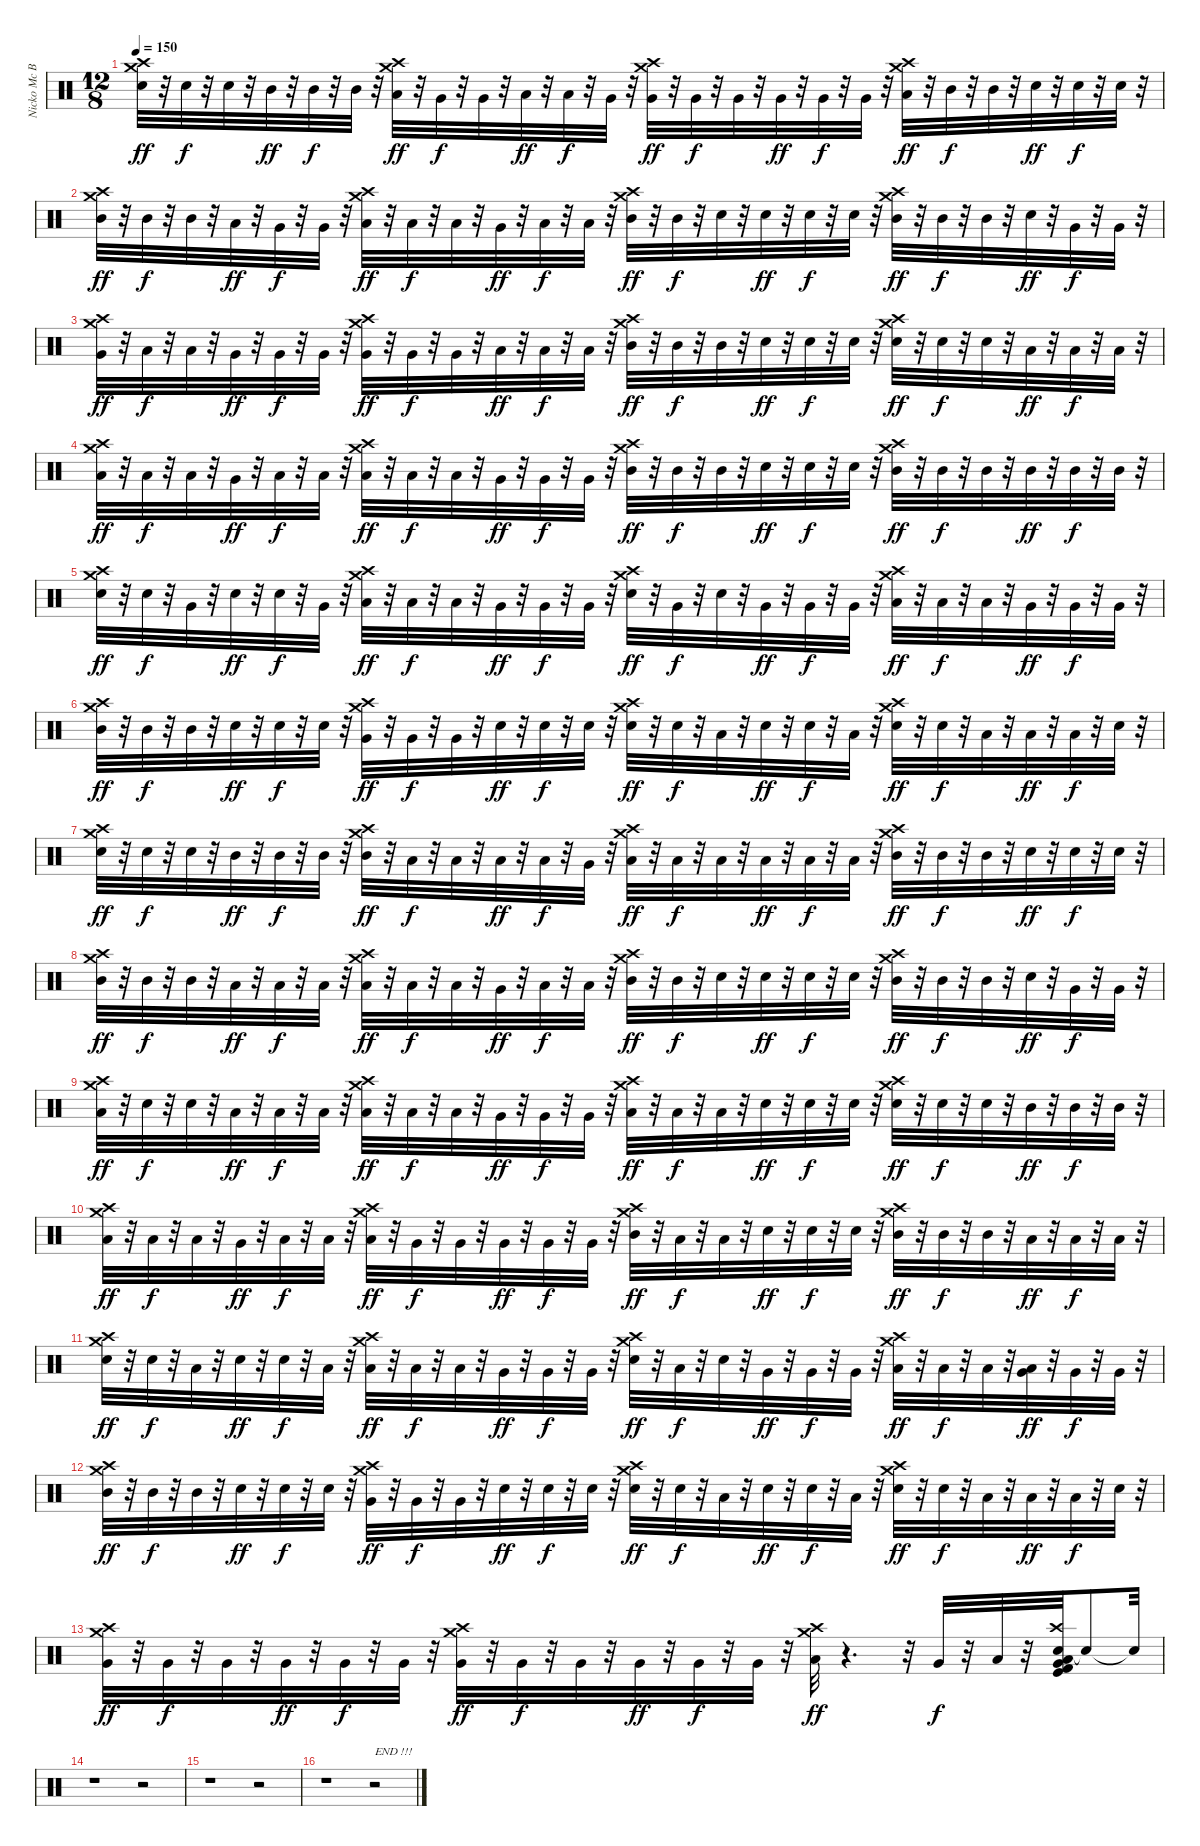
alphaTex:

\track ("Nicko Mc Brain  ( drums )" "Nicko Mc B") {instrument percussion}
\staff {score}
\articulation defaults
\ts (12 8)
\tempo 150
\clef neutral
\ks c
("Electric Snare (hit)" "Crash medium (hit)" "Crash high (hit)").32{dy ff} r.32 "Snare (hit) 2".32{dy f} r.32 "Snare (hit) 2".32 r.32 "Mid Tom (hit)".32{dy ff} r.32 "Mid Tom (hit)".32{dy f} r.32 "Mid Tom (hit)".32 r.32 ("Low Tom (hit)" "Crash high (hit)" "Crash medium (hit)").32{dy ff} r.32 "Very Low Tom (hit)".32{dy f} r.32 "Very Low Tom (hit)".32 r.32 "Low Floor Tom (hit)".32{dy ff} r.32 "Low Floor Tom (hit)".32{dy f} r.32 "Very Low Tom (hit)".32 r.32 ("Very Low Tom (hit)" "Crash medium (hit)" "Crash high (hit)").32{dy ff} r.32 "Very Low Tom (hit)".32{dy f} r.32 "Very Low Tom (hit)".32 r.32 "Very Low Tom (hit)".32{dy ff} r.32 "Very Low Tom (hit)".32{dy f} r.32 "Very Low Tom (hit)".32 r.32 ("Low Tom (hit)" "Crash high (hit)" "Crash medium (hit)").32{dy ff} r.32 "Mid Tom (hit)".32{dy f} r.32 "Mid Tom (hit)".32 r.32 "Snare (hit) 2".32{dy ff} r.32 "Snare (hit) 2".32{dy f} r.32 "Snare (hit) 2".32 r.32 |
("Mid Tom (hit)" "Crash medium (hit)" "Crash high (hit)").32{dy ff} r.32 "Mid Tom (hit)".32{dy f} r.32 "Mid Tom (hit)".32 r.32 "Low Tom (hit)".32{dy ff} r.32 "Very Low Tom (hit)".32{dy f} r.32 "Very Low Tom (hit)".32 r.32 ("Low Floor Tom (hit)" "Crash high (hit)" "Crash medium (hit)").32{dy ff} r.32 "Low Floor Tom (hit)".32{dy f} r.32 "Low Floor Tom (hit)".32 r.32 "Very Low Tom (hit)".32{dy ff} r.32 "Low Floor Tom (hit)".32{dy f} r.32 "Low Floor Tom (hit)".32 r.32 ("Mid Tom (hit)" "Crash medium (hit)" "Crash high (hit)").32{dy ff} r.32 "Mid Tom (hit)".32{dy f} r.32 "Snare (hit) 2".32 r.32 "Snare (hit) 2".32{dy ff} r.32 "Snare (hit) 2".32{dy f} r.32 "Snare (hit) 2".32 r.32 ("Mid Tom (hit)" "Crash high (hit)" "Crash medium (hit)").32{dy ff} r.32 "Mid Tom (hit)".32{dy f} r.32 "Mid Tom (hit)".32 r.32 "Electric Snare (hit)".32{dy ff} r.32 "Very Low Tom (hit)".32{dy f} r.32 "Very Low Tom (hit)".32 r.32 |
("Very Low Tom (hit)" "Crash medium (hit)" "Crash high (hit)").32{dy ff} r.32 "Low Floor Tom (hit)".32{dy f} r.32 "Low Floor Tom (hit)".32 r.32 "Very Low Tom (hit)".32{dy ff} r.32 "Very Low Tom (hit)".32{dy f} r.32 "Very Low Tom (hit)".32 r.32 ("Very Low Tom (hit)" "Crash high (hit)" "Crash medium (hit)").32{dy ff} r.32 "Very Low Tom (hit)".32{dy f} r.32 "Very Low Tom (hit)".32 r.32 "Low Tom (hit)".32{dy ff} r.32 "Low Tom (hit)".32{dy f} r.32 "Low Tom (hit)".32 r.32 ("Mid Tom (hit)" "Crash medium (hit)" "Crash high (hit)").32{dy ff} r.32 "Mid Tom (hit)".32{dy f} r.32 "Mid Tom (hit)".32 r.32 "Snare (hit) 2".32{dy ff} r.32 "Snare (hit) 2".32{dy f} r.32 "Snare (hit) 2".32 r.32 ("Snare (hit) 2" "Crash high (hit)" "Crash medium (hit)").32{dy ff} r.32 "Snare (hit) 2".32{dy f} r.32 "Snare (hit) 2".32 r.32 "Low Tom (hit)".32{dy ff} r.32 "Low Tom (hit)".32{dy f} r.32 "Low Tom (hit)".32 r.32 |
("Low Floor Tom (hit)" "Crash medium (hit)" "Crash high (hit)").32{dy ff} r.32 "Low Floor Tom (hit)".32{dy f} r.32 "Low Floor Tom (hit)".32 r.32 "Very Low Tom (hit)".32{dy ff} r.32 "Low Floor Tom (hit)".32{dy f} r.32 "Low Floor Tom (hit)".32 r.32 ("Low Tom (hit)" "Crash high (hit)" "Crash medium (hit)").32{dy ff} r.32 "Low Tom (hit)".32{dy f} r.32 "Low Tom (hit)".32 r.32 "Very Low Tom (hit)".32{dy ff} r.32 "Very Low Tom (hit)".32{dy f} r.32 "Very Low Tom (hit)".32 r.32 ("Mid Tom (hit)" "Crash medium (hit)" "Crash high (hit)").32{dy ff} r.32 "Mid Tom (hit)".32{dy f} r.32 "Mid Tom (hit)".32 r.32 "Snare (hit) 2".32{dy ff} r.32 "Snare (hit) 2".32{dy f} r.32 "Snare (hit) 2".32 r.32 ("Mid Tom (hit)" "Crash high (hit)" "Crash medium (hit)").32{dy ff} r.32 "Mid Tom (hit)".32{dy f} r.32 "Mid Tom (hit)".32 r.32 "Mid Tom (hit)".32{dy ff} r.32 "Mid Tom (hit)".32{dy f} r.32 "Mid Tom (hit)".32 r.32 |
("Snare (hit) 2" "Crash medium (hit)" "Crash high (hit)").32{dy ff} r.32 "Snare (hit) 2".32{dy f} r.32 "Very Low Tom (hit)".32 r.32 "Snare (hit) 2".32{dy ff} r.32 "Snare (hit) 2".32{dy f} r.32 "Very Low Tom (hit)".32 r.32 ("Low Floor Tom (hit)" "Crash high (hit)" "Crash medium (hit)").32{dy ff} r.32 "Low Floor Tom (hit)".32{dy f} r.32 "Low Floor Tom (hit)".32 r.32 "Very Low Tom (hit)".32{dy ff} r.32 "Very Low Tom (hit)".32{dy f} r.32 "Very Low Tom (hit)".32 r.32 ("Snare (hit) 2" "Crash medium (hit)" "Crash high (hit)").32{dy ff} r.32 "Very Low Tom (hit)".32{dy f} r.32 "Snare (hit) 2".32 r.32 "Very Low Tom (hit)".32{dy ff} r.32 "Very Low Tom (hit)".32{dy f} r.32 "Very Low Tom (hit)".32 r.32 ("Low Floor Tom (hit)" "Crash high (hit)" "Crash medium (hit)").32{dy ff} r.32 "Low Floor Tom (hit)".32{dy f} r.32 "Low Floor Tom (hit)".32 r.32 "Very Low Tom (hit)".32{dy ff} r.32 "Very Low Tom (hit)".32{dy f} r.32 "Very Low Tom (hit)".32 r.32 |
("Mid Tom (hit)" "Crash medium (hit)" "Crash high (hit)").32{dy ff} r.32 "Mid Tom (hit)".32{dy f} r.32 "Mid Tom (hit)".32 r.32 "Electric Snare (hit)".32{dy ff} r.32 "Snare (hit) 2".32{dy f} r.32 "Snare (hit) 2".32 r.32 ("Very Low Tom (hit)" "Crash high (hit)" "Crash medium (hit)").32{dy ff} r.32 "Very Low Tom (hit)".32{dy f} r.32 "Very Low Tom (hit)".32 r.32 "Snare (hit) 2".32{dy ff} r.32 "Snare (hit) 2".32{dy f} r.32 "Snare (hit) 2".32 r.32 ("Electric Snare (hit)" "Crash medium (hit)" "Crash high (hit)").32{dy ff} r.32 "Electric Snare (hit)".32{dy f} r.32 "Low Floor Tom (hit)".32 r.32 "Electric Snare (hit)".32{dy ff} r.32 "Electric Snare (hit)".32{dy f} r.32 "Low Floor Tom (hit)".32 r.32 ("Electric Snare (hit)" "Crash high (hit)" "Crash medium (hit)").32{dy ff} r.32 "Electric Snare (hit)".32{dy f} r.32 "Low Floor Tom (hit)".32 r.32 "Low Floor Tom (hit)".32{dy ff} r.32 "Low Floor Tom (hit)".32{dy f} r.32 "Electric Snare (hit)".32 r.32 |
("Snare (hit) 2" "Crash medium (hit)" "Crash high (hit)").32{dy ff} r.32 "Snare (hit) 2".32{dy f} r.32 "Snare (hit) 2".32 r.32 "Mid Tom (hit)".32{dy ff} r.32 "Mid Tom (hit)".32{dy f} r.32 "Mid Tom (hit)".32 r.32 ("Mid Tom (hit)" "Crash high (hit)" "Crash medium (hit)").32{dy ff} r.32 "Low Tom (hit)".32{dy f} r.32 "Low Tom (hit)".32 r.32 "Low Floor Tom (hit)".32{dy ff} r.32 "Low Floor Tom (hit)".32{dy f} r.32 "Very Low Tom (hit)".32 r.32 ("Low Tom (hit)" "Crash medium (hit)" "Crash high (hit)").32{dy ff} r.32 "Low Tom (hit)".32{dy f} r.32 "Low Tom (hit)".32 r.32 "Low Tom (hit)".32{dy ff} r.32 "Low Tom (hit)".32{dy f} r.32 "Low Tom (hit)".32 r.32 ("Mid Tom (hit)" "Crash high (hit)" "Crash medium (hit)").32{dy ff} r.32 "Mid Tom (hit)".32{dy f} r.32 "Mid Tom (hit)".32 r.32 "Snare (hit) 2".32{dy ff} r.32 "Snare (hit) 2".32{dy f} r.32 "Snare (hit) 2".32 r.32 |
("Mid Tom (hit)" "Crash medium (hit)" "Crash high (hit)").32{dy ff} r.32 "Mid Tom (hit)".32{dy f} r.32 "Mid Tom (hit)".32 r.32 "Low Tom (hit)".32{dy ff} r.32 "Low Tom (hit)".32{dy f} r.32 "Low Tom (hit)".32 r.32 ("Low Floor Tom (hit)" "Crash high (hit)" "Crash medium (hit)").32{dy ff} r.32 "Low Floor Tom (hit)".32{dy f} r.32 "Low Floor Tom (hit)".32 r.32 "Very Low Tom (hit)".32{dy ff} r.32 "Low Floor Tom (hit)".32{dy f} r.32 "Low Floor Tom (hit)".32 r.32 ("Mid Tom (hit)" "Crash medium (hit)" "Crash high (hit)").32{dy ff} r.32 "Mid Tom (hit)".32{dy f} r.32 "Electric Snare (hit)".32 r.32 "Snare (hit) 2".32{dy ff} r.32 "Snare (hit) 2".32{dy f} r.32 "Snare (hit) 2".32 r.32 ("Mid Tom (hit)" "Crash high (hit)" "Crash medium (hit)").32{dy ff} r.32 "Mid Tom (hit)".32{dy f} r.32 "Mid Tom (hit)".32 r.32 "Snare (hit) 2".32{dy ff} r.32 "Very Low Tom (hit)".32{dy f} r.32 "Very Low Tom (hit)".32 r.32 |
("Low Floor Tom (hit)" "Crash medium (hit)" "Crash high (hit)").32{dy ff} r.32 "Electric Snare (hit)".32{dy f} r.32 "Electric Snare (hit)".32 r.32 "Low Floor Tom (hit)".32{dy ff} r.32 "Low Floor Tom (hit)".32{dy f} r.32 "Low Floor Tom (hit)".32 r.32 ("Low Floor Tom (hit)" "Crash high (hit)" "Crash medium (hit)").32{dy ff} r.32 "Low Floor Tom (hit)".32{dy f} r.32 "Low Floor Tom (hit)".32 r.32 "Very Low Tom (hit)".32{dy ff} r.32 "Very Low Tom (hit)".32{dy f} r.32 "Very Low Tom (hit)".32 r.32 ("Low Tom (hit)" "Crash medium (hit)" "Crash high (hit)").32{dy ff} r.32 "Low Tom (hit)".32{dy f} r.32 "Low Tom (hit)".32 r.32 "Electric Snare (hit)".32{dy ff} r.32 "Electric Snare (hit)".32{dy f} r.32 "Electric Snare (hit)".32 r.32 ("Electric Snare (hit)" "Crash high (hit)" "Crash medium (hit)").32{dy ff} r.32 "Electric Snare (hit)".32{dy f} r.32 "Electric Snare (hit)".32 r.32 "Mid Tom (hit)".32{dy ff} r.32 "Mid Tom (hit)".32{dy f} r.32 "Mid Tom (hit)".32 r.32 |
("Low Floor Tom (hit)" "Crash medium (hit)" "Crash high (hit)").32{dy ff} r.32 "Low Floor Tom (hit)".32{dy f} r.32 "Low Floor Tom (hit)".32 r.32 "Very Low Tom (hit)".32{dy ff} r.32 "Low Floor Tom (hit)".32{dy f} r.32 "Low Floor Tom (hit)".32 r.32 ("Low Tom (hit)" "Crash high (hit)" "Crash medium (hit)").32{dy ff} r.32 "Very Low Tom (hit)".32{dy f} r.32 "Very Low Tom (hit)".32 r.32 "Very Low Tom (hit)".32{dy ff} r.32 "Very Low Tom (hit)".32{dy f} r.32 "Very Low Tom (hit)".32 r.32 ("Mid Tom (hit)" "Crash medium (hit)" "Crash high (hit)").32{dy ff} r.32 "Low Tom (hit)".32{dy f} r.32 "Low Tom (hit)".32 r.32 "Electric Snare (hit)".32{dy ff} r.32 "Electric Snare (hit)".32{dy f} r.32 "Electric Snare (hit)".32 r.32 ("Mid Tom (hit)" "Crash high (hit)" "Crash medium (hit)").32{dy ff} r.32 "Mid Tom (hit)".32{dy f} r.32 "Mid Tom (hit)".32 r.32 "Low Tom (hit)".32{dy ff} r.32 "Low Tom (hit)".32{dy f} r.32 "Low Tom (hit)".32 r.32 |
("Electric Snare (hit)" "Crash medium (hit)" "Crash high (hit)").32{dy ff} r.32 "Electric Snare (hit)".32{dy f} r.32 "Low Tom (hit)".32 r.32 "Electric Snare (hit)".32{dy ff} r.32 "Electric Snare (hit)".32{dy f} r.32 "Low Tom (hit)".32 r.32 ("Low Floor Tom (hit)" "Crash high (hit)" "Crash medium (hit)").32{dy ff} r.32 "Low Floor Tom (hit)".32{dy f} r.32 "Low Floor Tom (hit)".32 r.32 "Very Low Tom (hit)".32{dy ff} r.32 "Very Low Tom (hit)".32{dy f} r.32 "Very Low Tom (hit)".32 r.32 ("Electric Snare (hit)" "Crash medium (hit)" "Crash high (hit)").32{dy ff} r.32 "Low Tom (hit)".32{dy f} r.32 "Snare (hit) 2".32 r.32 "Very Low Tom (hit)".32{dy ff} r.32 "Very Low Tom (hit)".32{dy f} r.32 "Very Low Tom (hit)".32 r.32 ("Low Floor Tom (hit)" "Crash high (hit)" "Crash medium (hit)").32{dy ff} r.32 "Low Floor Tom (hit)".32{dy f} r.32 "Low Floor Tom (hit)".32 r.32 ("Low Tom (hit)" "Very Low Tom (hit)").32{dy ff} r.32 "Very Low Tom (hit)".32{dy f} r.32 "Very Low Tom (hit)".32 r.32 |
("Mid Tom (hit)" "Crash medium (hit)" "Crash high (hit)").32{dy ff} r.32 "Mid Tom (hit)".32{dy f} r.32 "Mid Tom (hit)".32 r.32 "Snare (hit) 2".32{dy ff} r.32 "Snare (hit) 2".32{dy f} r.32 "Snare (hit) 2".32 r.32 ("Very Low Tom (hit)" "Crash high (hit)" "Crash medium (hit)").32{dy ff} r.32 "Very Low Tom (hit)".32{dy f} r.32 "Very Low Tom (hit)".32 r.32 "Electric Snare (hit)".32{dy ff} r.32 "Electric Snare (hit)".32{dy f} r.32 "Electric Snare (hit)".32 r.32 ("Snare (hit) 2" "Crash medium (hit)" "Crash high (hit)").32{dy ff} r.32 "Snare (hit) 2".32{dy f} r.32 "Low Floor Tom (hit)".32 r.32 "Electric Snare (hit)".32{dy ff} r.32 "Electric Snare (hit)".32{dy f} r.32 "Low Floor Tom (hit)".32 r.32 ("Electric Snare (hit)" "Crash high (hit)" "Crash medium (hit)").32{dy ff} r.32 "Electric Snare (hit)".32{dy f} r.32 "Low Floor Tom (hit)".32 r.32 "Low Floor Tom (hit)".32{dy ff} r.32 "Low Floor Tom (hit)".32{dy f} r.32 "Snare (hit) 2".32 r.32 |
("Very Low Tom (hit)" "Crash medium (hit)" "Crash high (hit)").32{dy ff} r.32 "Very Low Tom (hit)".32{dy f} r.32 "Very Low Tom (hit)".32 r.32 "Very Low Tom (hit)".32{dy ff} r.32 "Very Low Tom (hit)".32{dy f} r.32 "Very Low Tom (hit)".32 r.32 ("Very Low Tom (hit)" "Crash high (hit)" "Crash medium (hit)").32{dy ff} r.32 "Very Low Tom (hit)".32{dy f} r.32 "Very Low Tom (hit)".32 r.32 "Very Low Tom (hit)".32{dy ff} r.32 "Very Low Tom (hit)".32{dy f} r.32 "Very Low Tom (hit)".32 r.32 ("Low Floor Tom (hit)" "Crash high (hit)" "Crash medium (hit)").32{dy ff} r.4{d} r.32 "Very Low Tom (hit)".32{dy f} r.32 "Low Floor Tom (hit)".32 r.32 ("Electric Snare (hit)" "Kick (hit) 2" "Low Floor Tom (hit)" "Very Low Tom (hit)" "Kick (hit)" "Crash high (hit)").32 "Snare (hit)"{t}.8 "Snare (hit)"{t}.32 |
r.1 r.2 |
r.1 r.2 |
r.1 r.2{txt "END !!!"}
